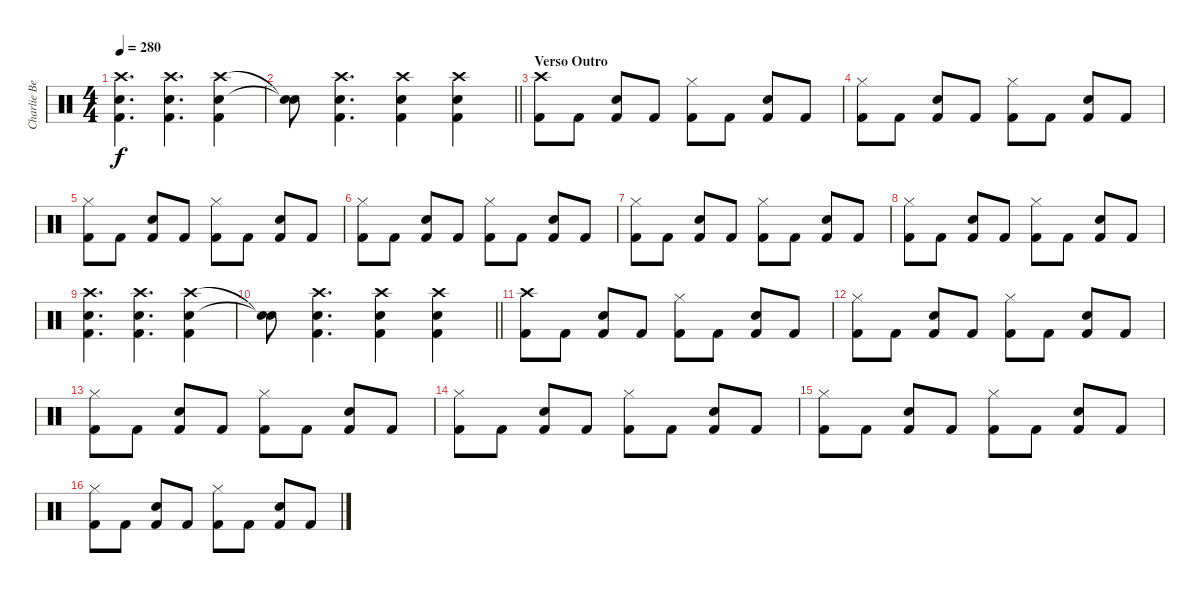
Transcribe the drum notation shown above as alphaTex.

\track ("Charlie Benante" "Charlie Be") {instrument percussion}
\staff {score}
\articulation defaults
\ts (4 4)
\tempo 280
\clef neutral
\ks c
("Crash high (hit)" "Snare (hit) 2" "Kick (hit) 2").4{d dy f} ("Crash high (hit)" "Snare (hit) 2" "Kick (hit) 2").4{d} ("Crash high (hit)" "Snare (hit) 2" "Kick (hit) 2").4 |
\barLineRight lightlight
("Snare (hit)"{t} "Snare (hit)"{t}).8 ("Crash high (hit)" "Snare (hit) 2" "Kick (hit) 2").4{d} ("Crash high (hit)" "Snare (hit) 2" "Kick (hit) 2").4 ("Crash high (hit)" "Snare (hit) 2" "Kick (hit) 2").4 |
\section ("" "Verso Outro")
("Crash high (hit)" "Kick (hit) 2").8 "Kick (hit) 2".8 ("Snare (hit) 2" "Kick (hit) 2").8 "Kick (hit) 2".8 ("Hi-Hat (closed)" "Kick (hit) 2").8 "Kick (hit) 2".8 ("Snare (hit) 2" "Kick (hit) 2").8 "Kick (hit) 2".8 |
("Hi-Hat (closed)" "Kick (hit) 2").8 "Kick (hit) 2".8 ("Snare (hit) 2" "Kick (hit) 2").8 "Kick (hit) 2".8 ("Hi-Hat (closed)" "Kick (hit) 2").8 "Kick (hit) 2".8 ("Snare (hit) 2" "Kick (hit) 2").8 "Kick (hit) 2".8 |
("Hi-Hat (closed)" "Kick (hit) 2").8 "Kick (hit) 2".8 ("Snare (hit) 2" "Kick (hit) 2").8 "Kick (hit) 2".8 ("Hi-Hat (closed)" "Kick (hit) 2").8 "Kick (hit) 2".8 ("Snare (hit) 2" "Kick (hit) 2").8 "Kick (hit) 2".8 |
("Hi-Hat (closed)" "Kick (hit) 2").8 "Kick (hit) 2".8 ("Snare (hit) 2" "Kick (hit) 2").8 "Kick (hit) 2".8 ("Hi-Hat (closed)" "Kick (hit) 2").8 "Kick (hit) 2".8 ("Snare (hit) 2" "Kick (hit) 2").8 "Kick (hit) 2".8 |
("Hi-Hat (closed)" "Kick (hit) 2").8 "Kick (hit) 2".8 ("Snare (hit) 2" "Kick (hit) 2").8 "Kick (hit) 2".8 ("Hi-Hat (closed)" "Kick (hit) 2").8 "Kick (hit) 2".8 ("Snare (hit) 2" "Kick (hit) 2").8 "Kick (hit) 2".8 |
("Hi-Hat (closed)" "Kick (hit) 2").8 "Kick (hit) 2".8 ("Snare (hit) 2" "Kick (hit) 2").8 "Kick (hit) 2".8 ("Hi-Hat (closed)" "Kick (hit) 2").8 "Kick (hit) 2".8 ("Snare (hit) 2" "Kick (hit) 2").8 "Kick (hit) 2".8 |
("Crash high (hit)" "Snare (hit) 2" "Kick (hit) 2").4{d} ("Crash high (hit)" "Snare (hit) 2" "Kick (hit) 2").4{d} ("Crash high (hit)" "Snare (hit) 2" "Kick (hit) 2").4 |
\barLineRight lightlight
("Snare (hit)"{t} "Snare (hit)"{t}).8 ("Crash high (hit)" "Snare (hit) 2" "Kick (hit) 2").4{d} ("Crash high (hit)" "Snare (hit) 2" "Kick (hit) 2").4 ("Crash high (hit)" "Snare (hit) 2" "Kick (hit) 2").4 |
("Crash high (hit)" "Kick (hit) 2").8 "Kick (hit) 2".8 ("Snare (hit) 2" "Kick (hit) 2").8 "Kick (hit) 2".8 ("Hi-Hat (closed)" "Kick (hit) 2").8 "Kick (hit) 2".8 ("Snare (hit) 2" "Kick (hit) 2").8 "Kick (hit) 2".8 |
("Hi-Hat (closed)" "Kick (hit) 2").8 "Kick (hit) 2".8 ("Snare (hit) 2" "Kick (hit) 2").8 "Kick (hit) 2".8 ("Hi-Hat (closed)" "Kick (hit) 2").8 "Kick (hit) 2".8 ("Snare (hit) 2" "Kick (hit) 2").8 "Kick (hit) 2".8 |
("Hi-Hat (closed)" "Kick (hit) 2").8 "Kick (hit) 2".8 ("Snare (hit) 2" "Kick (hit) 2").8 "Kick (hit) 2".8 ("Hi-Hat (closed)" "Kick (hit) 2").8 "Kick (hit) 2".8 ("Snare (hit) 2" "Kick (hit) 2").8 "Kick (hit) 2".8 |
("Hi-Hat (closed)" "Kick (hit) 2").8 "Kick (hit) 2".8 ("Snare (hit) 2" "Kick (hit) 2").8 "Kick (hit) 2".8 ("Hi-Hat (closed)" "Kick (hit) 2").8 "Kick (hit) 2".8 ("Snare (hit) 2" "Kick (hit) 2").8 "Kick (hit) 2".8 |
("Hi-Hat (closed)" "Kick (hit) 2").8 "Kick (hit) 2".8 ("Snare (hit) 2" "Kick (hit) 2").8 "Kick (hit) 2".8 ("Hi-Hat (closed)" "Kick (hit) 2").8 "Kick (hit) 2".8 ("Snare (hit) 2" "Kick (hit) 2").8 "Kick (hit) 2".8 |
("Hi-Hat (closed)" "Kick (hit) 2").8 "Kick (hit) 2".8 ("Snare (hit) 2" "Kick (hit) 2").8 "Kick (hit) 2".8 ("Hi-Hat (closed)" "Kick (hit) 2").8 "Kick (hit) 2".8 ("Snare (hit) 2" "Kick (hit) 2").8 "Kick (hit) 2".8
